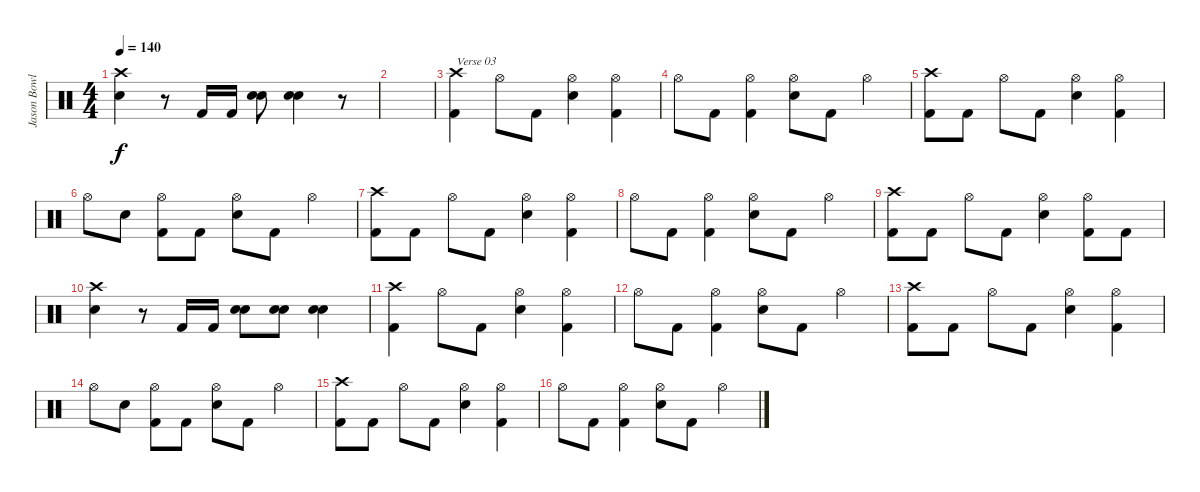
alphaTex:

\track ("Jason Bowld" "Jason Bowl") {instrument percussion}
\staff {score}
\articulation defaults
\ts (4 4)
\tempo 140
\clef neutral
\ks c
("Crash high (hit)" "Snare (hit) 2").4{dy f} r.8 "Kick (hit) 2".16 "Kick (hit) 2".16 ("Snare (hit) 2" "Snare (hit) 2").8 ("Snare (hit) 2" "Snare (hit) 2").4 r.8 |
|
("Crash high (hit)" "Kick (hit) 2").4{txt "Verse 03"} "Hi-Hat (open)".8 "Kick (hit) 2".8 ("Hi-Hat (open)" "Snare (hit) 2").4 ("Hi-Hat (open)" "Kick (hit) 2").4 |
"Hi-Hat (open)".8 "Kick (hit) 2".8 ("Hi-Hat (open)" "Kick (hit) 2").4 ("Hi-Hat (open)" "Snare (hit) 2").8 "Kick (hit) 2".8 "Hi-Hat (open)".4 |
("Crash high (hit)" "Kick (hit) 2").8 "Kick (hit) 2".8 "Hi-Hat (open)".8 "Kick (hit) 2".8 ("Hi-Hat (open)" "Snare (hit) 2").4 ("Hi-Hat (open)" "Kick (hit) 2").4 |
"Hi-Hat (open)".8 "Snare (hit) 2".8 ("Hi-Hat (open)" "Kick (hit) 2").8 "Kick (hit) 2".8 ("Hi-Hat (open)" "Snare (hit) 2").8 "Kick (hit) 2".8 "Hi-Hat (open)".4 |
("Crash high (hit)" "Kick (hit) 2").8 "Kick (hit) 2".8 "Hi-Hat (open)".8 "Kick (hit) 2".8 ("Hi-Hat (open)" "Snare (hit) 2").4 ("Hi-Hat (open)" "Kick (hit) 2").4 |
"Hi-Hat (open)".8 "Kick (hit) 2".8 ("Hi-Hat (open)" "Kick (hit) 2").4 ("Hi-Hat (open)" "Snare (hit) 2").8 "Kick (hit) 2".8 "Hi-Hat (open)".4 |
("Crash high (hit)" "Kick (hit) 2").8 "Kick (hit) 2".8 "Hi-Hat (open)".8 "Kick (hit) 2".8 ("Hi-Hat (open)" "Snare (hit) 2").4 ("Hi-Hat (open)" "Kick (hit) 2").8 "Kick (hit) 2".8 |
("Crash high (hit)" "Snare (hit) 2").4 r.8 "Kick (hit) 2".16 "Kick (hit) 2".16 ("Snare (hit) 2" "Snare (hit) 2").8 ("Snare (hit) 2" "Snare (hit) 2").8 ("Snare (hit) 2" "Snare (hit) 2").4 |
("Crash high (hit)" "Kick (hit) 2").4 "Hi-Hat (open)".8 "Kick (hit) 2".8 ("Hi-Hat (open)" "Snare (hit) 2").4 ("Hi-Hat (open)" "Kick (hit) 2").4 |
"Hi-Hat (open)".8 "Kick (hit) 2".8 ("Hi-Hat (open)" "Kick (hit) 2").4 ("Hi-Hat (open)" "Snare (hit) 2").8 "Kick (hit) 2".8 "Hi-Hat (open)".4 |
("Crash high (hit)" "Kick (hit) 2").8 "Kick (hit) 2".8 "Hi-Hat (open)".8 "Kick (hit) 2".8 ("Hi-Hat (open)" "Snare (hit) 2").4 ("Hi-Hat (open)" "Kick (hit) 2").4 |
"Hi-Hat (open)".8 "Snare (hit) 2".8 ("Hi-Hat (open)" "Kick (hit) 2").8 "Kick (hit) 2".8 ("Hi-Hat (open)" "Snare (hit) 2").8 "Kick (hit) 2".8 "Hi-Hat (open)".4 |
("Crash high (hit)" "Kick (hit) 2").8 "Kick (hit) 2".8 "Hi-Hat (open)".8 "Kick (hit) 2".8 ("Hi-Hat (open)" "Snare (hit) 2").4 ("Hi-Hat (open)" "Kick (hit) 2").4 |
"Hi-Hat (open)".8 "Kick (hit) 2".8 ("Hi-Hat (open)" "Kick (hit) 2").4 ("Hi-Hat (open)" "Snare (hit) 2").8 "Kick (hit) 2".8 "Hi-Hat (open)".4
